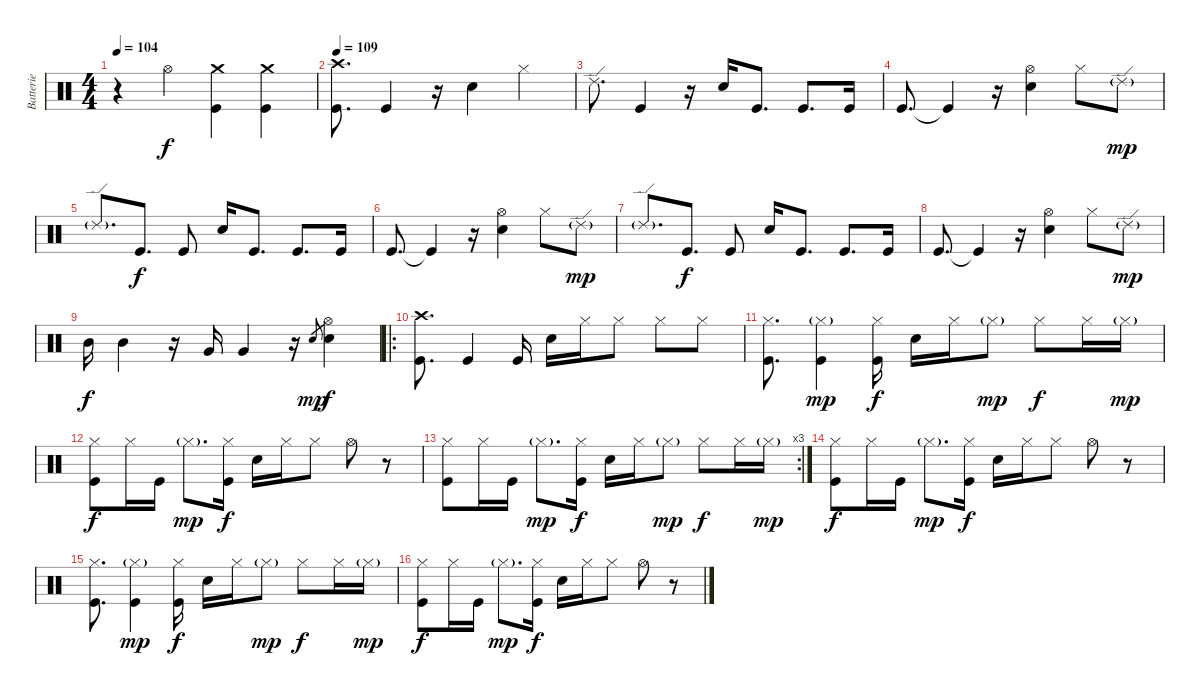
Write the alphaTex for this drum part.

\track ("Batterie" "Batterie") {instrument percussion}
\staff {score}
\articulation defaults
\ts (4 4)
\tempo 104
\clef neutral
\ks c
r.4{dy f} "Hi-Hat (open)".4 ("Crash medium (hit)" "Kick (hit)").4 ("Crash medium (hit)" "Kick (hit)").4 |
\tempo 109
("Crash high (hit)" "Kick (hit)").8{d} "Kick (hit)".4 r.16 "Electric Snare (hit)".4 "Hi-Hat (closed)".4 |
"Ride (edge) 2".8{d} "Kick (hit)".4 r.16 "Electric Snare (hit)".16 "Kick (hit)".8{d} "Kick (hit)".8{d} "Kick (hit)".16 |
"Kick (hit)".8{d} "Kick (hit)"{t}.4 r.16 ("Hi-Hat (open)" "Electric Snare (hit)").4 "Hi-Hat (closed)".8 "Ride (edge) 2"{g}.8{dy mp} |
"Ride (edge) 2"{g}.8{d} "Kick (hit)".8{d dy f} "Kick (hit)".8 "Electric Snare (hit)".16 "Kick (hit)".8{d} "Kick (hit)".8{d} "Kick (hit)".16 |
"Kick (hit)".8{d} "Kick (hit)"{t}.4 r.16 ("Hi-Hat (open)" "Electric Snare (hit)").4 "Hi-Hat (closed)".8 "Ride (edge) 2"{g}.8{dy mp} |
"Ride (edge) 2"{g}.8{d} "Kick (hit)".8{d dy f} "Kick (hit)".8 "Electric Snare (hit)".16 "Kick (hit)".8{d} "Kick (hit)".8{d} "Kick (hit)".16 |
"Kick (hit)".8{d} "Kick (hit)"{t}.4 r.16 ("Hi-Hat (open)" "Electric Snare (hit)").4 "Hi-Hat (closed)".8 "Ride (edge) 2"{g}.8{dy mp} |
"Mid Tom (hit)".16{dy f} "Mid Tom (hit)".4 r.16 "Very Low Tom (hit)".16 "Very Low Tom (hit)".4 r.16 "Electric Snare (hit)".8{gr dy mp} ("Hi-Hat (open)" "Electric Snare (hit)").4{dy f} |
\ro
("Crash high (hit)" "Kick (hit)").8{d} "Kick (hit)".4 "Kick (hit)".16 "Electric Snare (hit)".16 "Hi-Hat (closed)".16 "Hi-Hat (closed)".8 "Hi-Hat (closed)".8 "Hi-Hat (closed)".8 |
("Hi-Hat (closed)" "Kick (hit)").8{d} ("Hi-Hat (closed)"{g} "Kick (hit)").4{dy mp} ("Hi-Hat (closed)" "Kick (hit)").16{dy f} "Electric Snare (hit)".16 "Hi-Hat (closed)".16 "Hi-Hat (closed)"{g}.8{dy mp} "Hi-Hat (closed)".8{dy f} "Hi-Hat (closed)".16 "Hi-Hat (closed)"{g}.16{dy mp} |
("Hi-Hat (closed)" "Kick (hit)").8{dy f} "Hi-Hat (closed)".16 "Kick (hit)".16 "Hi-Hat (closed)"{g}.8{d dy mp} ("Hi-Hat (closed)" "Kick (hit)").16{dy f} "Electric Snare (hit)".16 "Hi-Hat (closed)".16 "Hi-Hat (closed)".8 "Hi-Hat (open)".8 r.8 |
\rc 3
("Hi-Hat (closed)" "Kick (hit)").8 "Hi-Hat (closed)".16 "Kick (hit)".16 "Hi-Hat (closed)"{g}.8{d dy mp} ("Hi-Hat (closed)" "Kick (hit)").16{dy f} "Electric Snare (hit)".16 "Hi-Hat (closed)".16 "Hi-Hat (closed)"{g}.8{dy mp} "Hi-Hat (closed)".8{dy f} "Hi-Hat (closed)".16 "Hi-Hat (closed)"{g}.16{dy mp} |
("Hi-Hat (closed)" "Kick (hit)").8{dy f} "Hi-Hat (closed)".16 "Kick (hit)".16 "Hi-Hat (closed)"{g}.8{d dy mp} ("Hi-Hat (closed)" "Kick (hit)").16{dy f} "Electric Snare (hit)".16 "Hi-Hat (closed)".16 "Hi-Hat (closed)".8 "Hi-Hat (open)".8 r.8 |
("Hi-Hat (closed)" "Kick (hit)").8{d} ("Hi-Hat (closed)"{g} "Kick (hit)").4{dy mp} ("Hi-Hat (closed)" "Kick (hit)").16{dy f} "Electric Snare (hit)".16 "Hi-Hat (closed)".16 "Hi-Hat (closed)"{g}.8{dy mp} "Hi-Hat (closed)".8{dy f} "Hi-Hat (closed)".16 "Hi-Hat (closed)"{g}.16{dy mp} |
("Hi-Hat (closed)" "Kick (hit)").8{dy f} "Hi-Hat (closed)".16 "Kick (hit)".16 "Hi-Hat (closed)"{g}.8{d dy mp} ("Hi-Hat (closed)" "Kick (hit)").16{dy f} "Electric Snare (hit)".16 "Hi-Hat (closed)".16 "Hi-Hat (closed)".8 "Hi-Hat (open)".8 r.8
